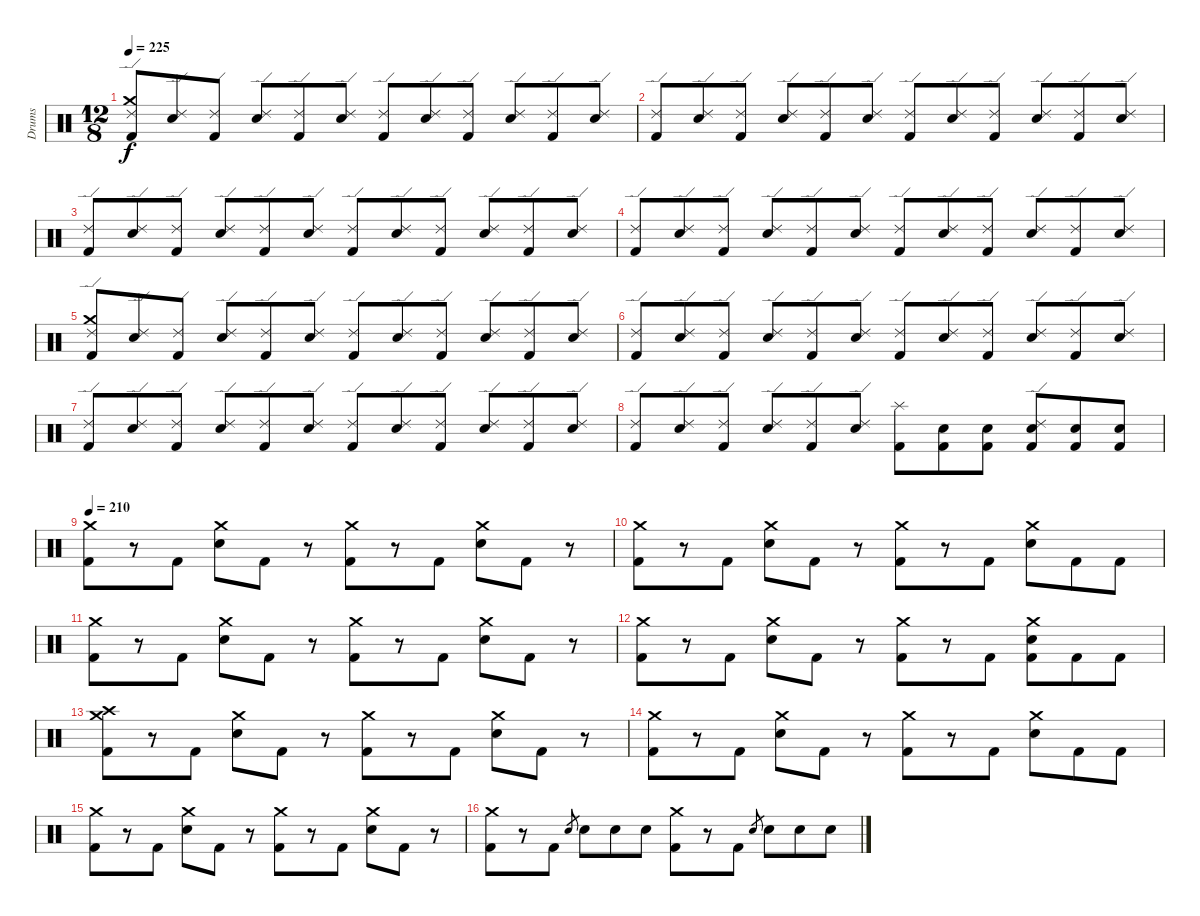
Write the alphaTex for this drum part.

\track ("Drums" "Drums") {instrument percussion}
\staff {score}
\articulation defaults
\ts (12 8)
\tempo 225
\clef neutral
\ks c
("Ride (edge) 2" "Crash medium (hit)" "Kick (hit) 2").8{dy f} ("Ride (edge) 2" "Snare (hit) 2").8 ("Ride (edge) 2" "Kick (hit) 2").8 ("Ride (edge) 2" "Snare (hit) 2").8 ("Ride (edge) 2" "Kick (hit) 2").8 ("Ride (edge) 2" "Snare (hit) 2").8 ("Ride (edge) 2" "Kick (hit) 2").8 ("Ride (edge) 2" "Snare (hit) 2").8 ("Ride (edge) 2" "Kick (hit) 2").8 ("Ride (edge) 2" "Snare (hit) 2").8 ("Ride (edge) 2" "Kick (hit) 2").8 ("Ride (edge) 2" "Snare (hit) 2").8 |
("Ride (edge) 2" "Kick (hit) 2").8 ("Ride (edge) 2" "Snare (hit) 2").8 ("Ride (edge) 2" "Kick (hit) 2").8 ("Ride (edge) 2" "Snare (hit) 2").8 ("Ride (edge) 2" "Kick (hit) 2").8 ("Ride (edge) 2" "Snare (hit) 2").8 ("Ride (edge) 2" "Kick (hit) 2").8 ("Ride (edge) 2" "Snare (hit) 2").8 ("Ride (edge) 2" "Kick (hit) 2").8 ("Ride (edge) 2" "Snare (hit) 2").8 ("Ride (edge) 2" "Kick (hit) 2").8 ("Ride (edge) 2" "Snare (hit) 2").8 |
("Ride (edge) 2" "Kick (hit) 2").8 ("Ride (edge) 2" "Snare (hit) 2").8 ("Ride (edge) 2" "Kick (hit) 2").8 ("Ride (edge) 2" "Snare (hit) 2").8 ("Ride (edge) 2" "Kick (hit) 2").8 ("Ride (edge) 2" "Snare (hit) 2").8 ("Ride (edge) 2" "Kick (hit) 2").8 ("Ride (edge) 2" "Snare (hit) 2").8 ("Ride (edge) 2" "Kick (hit) 2").8 ("Ride (edge) 2" "Snare (hit) 2").8 ("Ride (edge) 2" "Kick (hit) 2").8 ("Ride (edge) 2" "Snare (hit) 2").8 |
("Ride (edge) 2" "Kick (hit) 2").8 ("Ride (edge) 2" "Snare (hit) 2").8 ("Ride (edge) 2" "Kick (hit) 2").8 ("Ride (edge) 2" "Snare (hit) 2").8 ("Ride (edge) 2" "Kick (hit) 2").8 ("Ride (edge) 2" "Snare (hit) 2").8 ("Ride (edge) 2" "Kick (hit) 2").8 ("Ride (edge) 2" "Snare (hit) 2").8 ("Ride (edge) 2" "Kick (hit) 2").8 ("Ride (edge) 2" "Snare (hit) 2").8 ("Ride (edge) 2" "Kick (hit) 2").8 ("Ride (edge) 2" "Snare (hit) 2").8 |
("Ride (edge) 2" "Crash medium (hit)" "Kick (hit) 2").8 ("Ride (edge) 2" "Snare (hit) 2").8 ("Ride (edge) 2" "Kick (hit) 2").8 ("Ride (edge) 2" "Snare (hit) 2").8 ("Ride (edge) 2" "Kick (hit) 2").8 ("Ride (edge) 2" "Snare (hit) 2").8 ("Ride (edge) 2" "Kick (hit) 2").8 ("Ride (edge) 2" "Snare (hit) 2").8 ("Ride (edge) 2" "Kick (hit) 2").8 ("Ride (edge) 2" "Snare (hit) 2").8 ("Ride (edge) 2" "Kick (hit) 2").8 ("Ride (edge) 2" "Snare (hit) 2").8 |
("Ride (edge) 2" "Kick (hit) 2").8 ("Ride (edge) 2" "Snare (hit) 2").8 ("Ride (edge) 2" "Kick (hit) 2").8 ("Ride (edge) 2" "Snare (hit) 2").8 ("Ride (edge) 2" "Kick (hit) 2").8 ("Ride (edge) 2" "Snare (hit) 2").8 ("Ride (edge) 2" "Kick (hit) 2").8 ("Ride (edge) 2" "Snare (hit) 2").8 ("Ride (edge) 2" "Kick (hit) 2").8 ("Ride (edge) 2" "Snare (hit) 2").8 ("Ride (edge) 2" "Kick (hit) 2").8 ("Ride (edge) 2" "Snare (hit) 2").8 |
("Ride (edge) 2" "Kick (hit) 2").8 ("Ride (edge) 2" "Snare (hit) 2").8 ("Ride (edge) 2" "Kick (hit) 2").8 ("Ride (edge) 2" "Snare (hit) 2").8 ("Ride (edge) 2" "Kick (hit) 2").8 ("Ride (edge) 2" "Snare (hit) 2").8 ("Ride (edge) 2" "Kick (hit) 2").8 ("Ride (edge) 2" "Snare (hit) 2").8 ("Ride (edge) 2" "Kick (hit) 2").8 ("Ride (edge) 2" "Snare (hit) 2").8 ("Ride (edge) 2" "Kick (hit) 2").8 ("Ride (edge) 2" "Snare (hit) 2").8 |
("Ride (edge) 2" "Kick (hit) 2").8 ("Ride (edge) 2" "Snare (hit) 2").8 ("Ride (edge) 2" "Kick (hit) 2").8 ("Ride (edge) 2" "Snare (hit) 2").8 ("Ride (edge) 2" "Kick (hit) 2").8 ("Ride (edge) 2" "Snare (hit) 2").8 ("Splash (hit)" "Kick (hit) 2").8 ("Snare (hit) 2" "Kick (hit) 2").8 ("Snare (hit) 2" "Kick (hit) 2").8 ("Ride (edge) 2" "Snare (hit) 2" "Kick (hit) 2").8 ("Snare (hit) 2" "Kick (hit) 2").8 ("Snare (hit) 2" "Kick (hit) 2").8 |
\tempo 210
("Crash medium (hit)" "Kick (hit) 2").8 r.8 "Kick (hit) 2".8 ("Crash medium (hit)" "Snare (hit) 2").8 "Kick (hit) 2".8 r.8 ("Crash medium (hit)" "Kick (hit) 2").8 r.8 "Kick (hit) 2".8 ("Crash medium (hit)" "Snare (hit) 2").8 "Kick (hit) 2".8 r.8 |
("Crash medium (hit)" "Kick (hit) 2").8 r.8 "Kick (hit) 2".8 ("Crash medium (hit)" "Snare (hit) 2").8 "Kick (hit) 2".8 r.8 ("Crash medium (hit)" "Kick (hit) 2").8 r.8 "Kick (hit) 2".8 ("Crash medium (hit)" "Snare (hit) 2").8 "Kick (hit) 2".8 "Kick (hit) 2".8 |
("Crash medium (hit)" "Kick (hit) 2").8 r.8 "Kick (hit) 2".8 ("Crash medium (hit)" "Snare (hit) 2").8 "Kick (hit) 2".8 r.8 ("Crash medium (hit)" "Kick (hit) 2").8 r.8 "Kick (hit) 2".8 ("Crash medium (hit)" "Snare (hit) 2").8 "Kick (hit) 2".8 r.8 |
("Crash medium (hit)" "Kick (hit) 2").8 r.8 "Kick (hit) 2".8 ("Crash medium (hit)" "Snare (hit) 2").8 "Kick (hit) 2".8 r.8 ("Crash medium (hit)" "Kick (hit) 2").8 r.8 "Kick (hit) 2".8 ("Crash medium (hit)" "Snare (hit) 2" "Kick (hit) 2").8 "Kick (hit) 2".8 "Kick (hit) 2".8 |
("Crash medium (hit)" "Crash high (hit)" "Kick (hit) 2").8 r.8 "Kick (hit) 2".8 ("Crash medium (hit)" "Snare (hit) 2").8 "Kick (hit) 2".8 r.8 ("Crash medium (hit)" "Kick (hit) 2").8 r.8 "Kick (hit) 2".8 ("Crash medium (hit)" "Snare (hit) 2").8 "Kick (hit) 2".8 r.8 |
("Crash medium (hit)" "Kick (hit) 2").8 r.8 "Kick (hit) 2".8 ("Crash medium (hit)" "Snare (hit) 2").8 "Kick (hit) 2".8 r.8 ("Crash medium (hit)" "Kick (hit) 2").8 r.8 "Kick (hit) 2".8 ("Crash medium (hit)" "Snare (hit) 2").8 "Kick (hit) 2".8 "Kick (hit) 2".8 |
("Crash medium (hit)" "Kick (hit) 2").8 r.8 "Kick (hit) 2".8 ("Crash medium (hit)" "Snare (hit) 2").8 "Kick (hit) 2".8 r.8 ("Crash medium (hit)" "Kick (hit) 2").8 r.8 "Kick (hit) 2".8 ("Crash medium (hit)" "Snare (hit) 2").8 "Kick (hit) 2".8 r.8 |
("Crash medium (hit)" "Kick (hit) 2").8 r.8 "Kick (hit) 2".8 "Snare (hit) 2".8{gr} "Snare (hit) 2".8 "Snare (hit) 2".8 "Snare (hit) 2".8 ("Crash medium (hit)" "Kick (hit) 2").8 r.8 "Kick (hit) 2".8 "Snare (hit) 2".8{gr} "Snare (hit) 2".8 "Snare (hit) 2".8 "Snare (hit) 2".8
